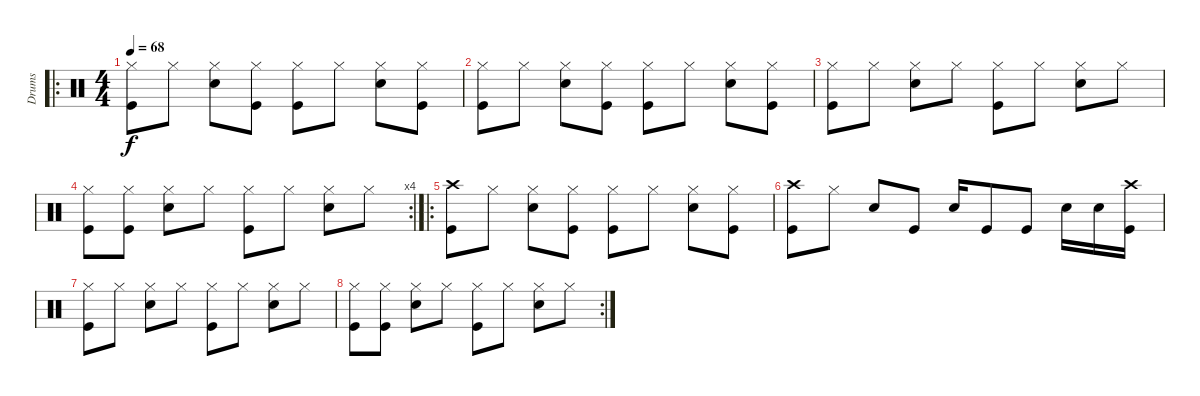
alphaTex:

\track ("Drums" "Drums") {instrument percussion}
\staff {score}
\articulation defaults
\ro
\ts (4 4)
\tempo 68
\clef neutral
\ks c
("Hi-Hat (closed)" "Kick (hit)").8{dy f} "Hi-Hat (closed)".8 ("Hi-Hat (closed)" "Electric Snare (hit)").8 ("Hi-Hat (closed)" "Kick (hit)").8 ("Hi-Hat (closed)" "Kick (hit)").8 "Hi-Hat (closed)".8 ("Hi-Hat (closed)" "Electric Snare (hit)").8 ("Hi-Hat (closed)" "Kick (hit)").8 |
("Hi-Hat (closed)" "Kick (hit)").8 "Hi-Hat (closed)".8 ("Hi-Hat (closed)" "Electric Snare (hit)").8 ("Hi-Hat (closed)" "Kick (hit)").8 ("Hi-Hat (closed)" "Kick (hit)").8 "Hi-Hat (closed)".8 ("Hi-Hat (closed)" "Electric Snare (hit)").8 ("Hi-Hat (closed)" "Kick (hit)").8 |
("Hi-Hat (closed)" "Kick (hit)").8 "Hi-Hat (closed)".8 ("Hi-Hat (closed)" "Electric Snare (hit)").8 "Hi-Hat (closed)".8 ("Hi-Hat (closed)" "Kick (hit)").8 "Hi-Hat (closed)".8 ("Hi-Hat (closed)" "Electric Snare (hit)").8 "Hi-Hat (closed)".8 |
\rc 4
("Hi-Hat (closed)" "Kick (hit)").8 ("Hi-Hat (closed)" "Kick (hit)").8 ("Hi-Hat (closed)" "Electric Snare (hit)").8 "Hi-Hat (closed)".8 ("Hi-Hat (closed)" "Kick (hit)").8 "Hi-Hat (closed)".8 ("Hi-Hat (closed)" "Electric Snare (hit)").8 "Hi-Hat (closed)".8 |
\ro
("Crash high (hit)" "Kick (hit)").8 "Hi-Hat (closed)".8 ("Hi-Hat (closed)" "Electric Snare (hit)").8 ("Hi-Hat (closed)" "Kick (hit)").8 ("Hi-Hat (closed)" "Kick (hit)").8 "Hi-Hat (closed)".8 ("Hi-Hat (closed)" "Electric Snare (hit)").8 ("Hi-Hat (closed)" "Kick (hit)").8 |
("Crash high (hit)" "Kick (hit)").8 "Hi-Hat (closed)".8 "Electric Snare (hit)".8 "Kick (hit)".8 "Electric Snare (hit)".16 "Kick (hit)".8 "Kick (hit)".8 "Electric Snare (hit)".16 "Electric Snare (hit)".16 ("Crash high (hit)" "Kick (hit)").16 |
("Hi-Hat (closed)" "Kick (hit)").8 "Hi-Hat (closed)".8 ("Hi-Hat (closed)" "Electric Snare (hit)").8 "Hi-Hat (closed)".8 ("Hi-Hat (closed)" "Kick (hit)").8 "Hi-Hat (closed)".8 ("Hi-Hat (closed)" "Electric Snare (hit)").8 "Hi-Hat (closed)".8 |
\rc 2
("Hi-Hat (closed)" "Kick (hit)").8 ("Hi-Hat (closed)" "Kick (hit)").8 ("Hi-Hat (closed)" "Electric Snare (hit)").8 "Hi-Hat (closed)".8 ("Hi-Hat (closed)" "Kick (hit)").8 "Hi-Hat (closed)".8 ("Hi-Hat (closed)" "Electric Snare (hit)").8 "Hi-Hat (closed)".8
